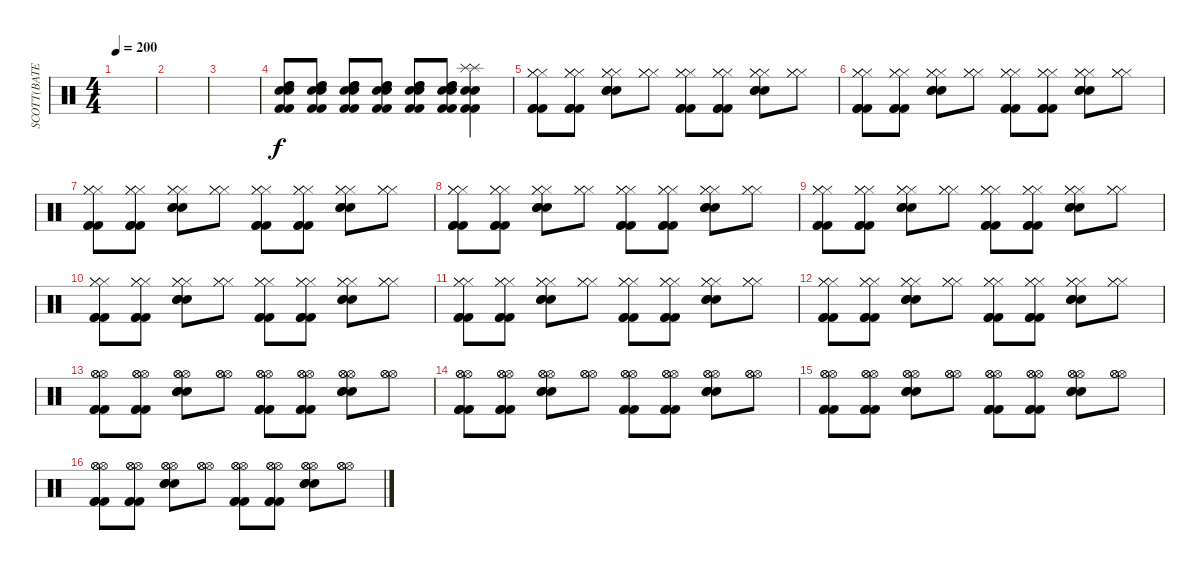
\track ("SCOTT(BATERIA)" "SCOTT(BATE") {instrument percussion}
\staff {score}
\articulation defaults
\ts (4 4)
\tempo 200
\clef neutral
\ks c
|
|
|
("Snare (hit) 2" "Snare (hit) 2" "High Tom (hit)" "High Tom (hit)" "Kick (hit) 2" "Kick (hit) 2").8 ("Snare (hit) 2" "Snare (hit) 2" "High Tom (hit)" "High Tom (hit)" "Kick (hit) 2" "Kick (hit) 2").8 ("Snare (hit) 2" "Snare (hit) 2" "High Tom (hit)" "High Tom (hit)" "Kick (hit) 2" "Kick (hit) 2").8 ("Snare (hit) 2" "Snare (hit) 2" "High Tom (hit)" "High Tom (hit)" "Kick (hit) 2" "Kick (hit) 2").8 ("Snare (hit) 2" "Snare (hit) 2" "High Tom (hit)" "High Tom (hit)" "Kick (hit) 2" "Kick (hit) 2").8 ("Snare (hit) 2" "Snare (hit) 2" "High Tom (hit)" "High Tom (hit)" "Kick (hit) 2" "Kick (hit) 2").8 ("Snare (hit) 2" "Snare (hit) 2" "Splash (hit)" "Splash (hit)" "Kick (hit) 2" "Kick (hit) 2").4 |
("Kick (hit) 2" "Kick (hit) 2" "Kick (hit) 2" "Hi-Hat (closed)" "Hi-Hat (closed)" "Hi-Hat (closed)").8 ("Kick (hit) 2" "Kick (hit) 2" "Kick (hit) 2" "Hi-Hat (closed)" "Hi-Hat (closed)" "Hi-Hat (closed)").8 ("Snare (hit) 2" "Snare (hit) 2" "Snare (hit) 2" "Hi-Hat (closed)" "Hi-Hat (closed)" "Hi-Hat (closed)").8 ("Hi-Hat (closed)" "Hi-Hat (closed)" "Hi-Hat (closed)").8 ("Kick (hit) 2" "Kick (hit) 2" "Kick (hit) 2" "Hi-Hat (closed)" "Hi-Hat (closed)" "Hi-Hat (closed)").8 ("Kick (hit) 2" "Kick (hit) 2" "Kick (hit) 2" "Hi-Hat (closed)" "Hi-Hat (closed)" "Hi-Hat (closed)").8 ("Snare (hit) 2" "Snare (hit) 2" "Snare (hit) 2" "Hi-Hat (closed)" "Hi-Hat (closed)" "Hi-Hat (closed)").8 ("Hi-Hat (closed)" "Hi-Hat (closed)" "Hi-Hat (closed)").8 |
("Kick (hit) 2" "Kick (hit) 2" "Kick (hit) 2" "Hi-Hat (closed)" "Hi-Hat (closed)" "Hi-Hat (closed)").8 ("Kick (hit) 2" "Kick (hit) 2" "Kick (hit) 2" "Hi-Hat (closed)" "Hi-Hat (closed)" "Hi-Hat (closed)").8 ("Snare (hit) 2" "Snare (hit) 2" "Snare (hit) 2" "Hi-Hat (closed)" "Hi-Hat (closed)" "Hi-Hat (closed)").8 ("Hi-Hat (closed)" "Hi-Hat (closed)" "Hi-Hat (closed)").8 ("Kick (hit) 2" "Kick (hit) 2" "Kick (hit) 2" "Hi-Hat (closed)" "Hi-Hat (closed)" "Hi-Hat (closed)").8 ("Kick (hit) 2" "Kick (hit) 2" "Kick (hit) 2" "Hi-Hat (closed)" "Hi-Hat (closed)" "Hi-Hat (closed)").8 ("Snare (hit) 2" "Snare (hit) 2" "Snare (hit) 2" "Hi-Hat (closed)" "Hi-Hat (closed)" "Hi-Hat (closed)").8 ("Hi-Hat (closed)" "Hi-Hat (closed)" "Hi-Hat (closed)").8 |
("Kick (hit) 2" "Kick (hit) 2" "Kick (hit) 2" "Hi-Hat (closed)" "Hi-Hat (closed)" "Hi-Hat (closed)").8 ("Kick (hit) 2" "Kick (hit) 2" "Kick (hit) 2" "Hi-Hat (closed)" "Hi-Hat (closed)" "Hi-Hat (closed)").8 ("Snare (hit) 2" "Snare (hit) 2" "Snare (hit) 2" "Hi-Hat (closed)" "Hi-Hat (closed)" "Hi-Hat (closed)").8 ("Hi-Hat (closed)" "Hi-Hat (closed)" "Hi-Hat (closed)").8 ("Kick (hit) 2" "Kick (hit) 2" "Kick (hit) 2" "Hi-Hat (closed)" "Hi-Hat (closed)" "Hi-Hat (closed)").8 ("Kick (hit) 2" "Kick (hit) 2" "Kick (hit) 2" "Hi-Hat (closed)" "Hi-Hat (closed)" "Hi-Hat (closed)").8 ("Snare (hit) 2" "Snare (hit) 2" "Snare (hit) 2" "Hi-Hat (closed)" "Hi-Hat (closed)" "Hi-Hat (closed)").8 ("Hi-Hat (closed)" "Hi-Hat (closed)" "Hi-Hat (closed)").8 |
("Kick (hit) 2" "Kick (hit) 2" "Kick (hit) 2" "Hi-Hat (closed)" "Hi-Hat (closed)" "Hi-Hat (closed)").8 ("Kick (hit) 2" "Kick (hit) 2" "Kick (hit) 2" "Hi-Hat (closed)" "Hi-Hat (closed)" "Hi-Hat (closed)").8 ("Snare (hit) 2" "Snare (hit) 2" "Snare (hit) 2" "Hi-Hat (closed)" "Hi-Hat (closed)" "Hi-Hat (closed)").8 ("Hi-Hat (closed)" "Hi-Hat (closed)" "Hi-Hat (closed)").8 ("Kick (hit) 2" "Kick (hit) 2" "Kick (hit) 2" "Hi-Hat (closed)" "Hi-Hat (closed)" "Hi-Hat (closed)").8 ("Kick (hit) 2" "Kick (hit) 2" "Kick (hit) 2" "Hi-Hat (closed)" "Hi-Hat (closed)" "Hi-Hat (closed)").8 ("Snare (hit) 2" "Snare (hit) 2" "Snare (hit) 2" "Hi-Hat (closed)" "Hi-Hat (closed)" "Hi-Hat (closed)").8 ("Hi-Hat (closed)" "Hi-Hat (closed)" "Hi-Hat (closed)").8 |
("Kick (hit) 2" "Kick (hit) 2" "Kick (hit) 2" "Hi-Hat (closed)" "Hi-Hat (closed)" "Hi-Hat (closed)").8 ("Kick (hit) 2" "Kick (hit) 2" "Kick (hit) 2" "Hi-Hat (closed)" "Hi-Hat (closed)" "Hi-Hat (closed)").8 ("Snare (hit) 2" "Snare (hit) 2" "Snare (hit) 2" "Hi-Hat (closed)" "Hi-Hat (closed)" "Hi-Hat (closed)").8 ("Hi-Hat (closed)" "Hi-Hat (closed)" "Hi-Hat (closed)").8 ("Kick (hit) 2" "Kick (hit) 2" "Kick (hit) 2" "Hi-Hat (closed)" "Hi-Hat (closed)" "Hi-Hat (closed)").8 ("Kick (hit) 2" "Kick (hit) 2" "Kick (hit) 2" "Hi-Hat (closed)" "Hi-Hat (closed)" "Hi-Hat (closed)").8 ("Snare (hit) 2" "Snare (hit) 2" "Snare (hit) 2" "Hi-Hat (closed)" "Hi-Hat (closed)" "Hi-Hat (closed)").8 ("Hi-Hat (closed)" "Hi-Hat (closed)" "Hi-Hat (closed)").8 |
("Kick (hit) 2" "Kick (hit) 2" "Kick (hit) 2" "Hi-Hat (closed)" "Hi-Hat (closed)" "Hi-Hat (closed)").8 ("Kick (hit) 2" "Kick (hit) 2" "Kick (hit) 2" "Hi-Hat (closed)" "Hi-Hat (closed)" "Hi-Hat (closed)").8 ("Snare (hit) 2" "Snare (hit) 2" "Snare (hit) 2" "Hi-Hat (closed)" "Hi-Hat (closed)" "Hi-Hat (closed)").8 ("Hi-Hat (closed)" "Hi-Hat (closed)" "Hi-Hat (closed)").8 ("Kick (hit) 2" "Kick (hit) 2" "Kick (hit) 2" "Hi-Hat (closed)" "Hi-Hat (closed)" "Hi-Hat (closed)").8 ("Kick (hit) 2" "Kick (hit) 2" "Kick (hit) 2" "Hi-Hat (closed)" "Hi-Hat (closed)" "Hi-Hat (closed)").8 ("Snare (hit) 2" "Snare (hit) 2" "Snare (hit) 2" "Hi-Hat (closed)" "Hi-Hat (closed)" "Hi-Hat (closed)").8 ("Hi-Hat (closed)" "Hi-Hat (closed)" "Hi-Hat (closed)").8 |
("Kick (hit) 2" "Kick (hit) 2" "Kick (hit) 2" "Hi-Hat (closed)" "Hi-Hat (closed)" "Hi-Hat (closed)").8 ("Kick (hit) 2" "Kick (hit) 2" "Kick (hit) 2" "Hi-Hat (closed)" "Hi-Hat (closed)" "Hi-Hat (closed)").8 ("Snare (hit) 2" "Snare (hit) 2" "Snare (hit) 2" "Hi-Hat (closed)" "Hi-Hat (closed)" "Hi-Hat (closed)").8 ("Hi-Hat (closed)" "Hi-Hat (closed)" "Hi-Hat (closed)").8 ("Kick (hit) 2" "Kick (hit) 2" "Kick (hit) 2" "Hi-Hat (closed)" "Hi-Hat (closed)" "Hi-Hat (closed)").8 ("Kick (hit) 2" "Kick (hit) 2" "Kick (hit) 2" "Hi-Hat (closed)" "Hi-Hat (closed)" "Hi-Hat (closed)").8 ("Snare (hit) 2" "Snare (hit) 2" "Snare (hit) 2" "Hi-Hat (closed)" "Hi-Hat (closed)" "Hi-Hat (closed)").8 ("Hi-Hat (closed)" "Hi-Hat (closed)" "Hi-Hat (closed)").8 |
("Kick (hit) 2" "Kick (hit) 2" "Kick (hit) 2" "Hi-Hat (closed)" "Hi-Hat (closed)" "Hi-Hat (closed)").8 ("Kick (hit) 2" "Kick (hit) 2" "Kick (hit) 2" "Hi-Hat (closed)" "Hi-Hat (closed)" "Hi-Hat (closed)").8 ("Snare (hit) 2" "Snare (hit) 2" "Snare (hit) 2" "Hi-Hat (closed)" "Hi-Hat (closed)" "Hi-Hat (closed)").8 ("Hi-Hat (closed)" "Hi-Hat (closed)" "Hi-Hat (closed)").8 ("Kick (hit) 2" "Kick (hit) 2" "Kick (hit) 2" "Hi-Hat (closed)" "Hi-Hat (closed)" "Hi-Hat (closed)").8 ("Kick (hit) 2" "Kick (hit) 2" "Kick (hit) 2" "Hi-Hat (closed)" "Hi-Hat (closed)" "Hi-Hat (closed)").8 ("Snare (hit) 2" "Snare (hit) 2" "Snare (hit) 2" "Hi-Hat (closed)" "Hi-Hat (closed)" "Hi-Hat (closed)").8 ("Hi-Hat (closed)" "Hi-Hat (closed)" "Hi-Hat (closed)").8 |
("Kick (hit) 2" "Kick (hit) 2" "Kick (hit) 2" "Hi-Hat (open)" "Hi-Hat (open)" "Hi-Hat (open)").8 ("Kick (hit) 2" "Kick (hit) 2" "Kick (hit) 2" "Hi-Hat (open)" "Hi-Hat (open)" "Hi-Hat (open)").8 ("Snare (hit) 2" "Snare (hit) 2" "Snare (hit) 2" "Hi-Hat (open)" "Hi-Hat (open)" "Hi-Hat (open)").8 ("Hi-Hat (open)" "Hi-Hat (open)" "Hi-Hat (open)").8 ("Kick (hit) 2" "Kick (hit) 2" "Kick (hit) 2" "Hi-Hat (open)" "Hi-Hat (open)" "Hi-Hat (open)").8 ("Kick (hit) 2" "Kick (hit) 2" "Kick (hit) 2" "Hi-Hat (open)" "Hi-Hat (open)" "Hi-Hat (open)").8 ("Snare (hit) 2" "Snare (hit) 2" "Snare (hit) 2" "Hi-Hat (open)" "Hi-Hat (open)" "Hi-Hat (open)").8 ("Hi-Hat (open)" "Hi-Hat (open)" "Hi-Hat (open)").8 |
("Kick (hit) 2" "Kick (hit) 2" "Kick (hit) 2" "Hi-Hat (open)" "Hi-Hat (open)" "Hi-Hat (open)").8 ("Kick (hit) 2" "Kick (hit) 2" "Kick (hit) 2" "Hi-Hat (open)" "Hi-Hat (open)" "Hi-Hat (open)").8 ("Snare (hit) 2" "Snare (hit) 2" "Snare (hit) 2" "Hi-Hat (open)" "Hi-Hat (open)" "Hi-Hat (open)").8 ("Hi-Hat (open)" "Hi-Hat (open)" "Hi-Hat (open)").8 ("Kick (hit) 2" "Kick (hit) 2" "Kick (hit) 2" "Hi-Hat (open)" "Hi-Hat (open)" "Hi-Hat (open)").8 ("Kick (hit) 2" "Kick (hit) 2" "Kick (hit) 2" "Hi-Hat (open)" "Hi-Hat (open)" "Hi-Hat (open)").8 ("Snare (hit) 2" "Snare (hit) 2" "Snare (hit) 2" "Hi-Hat (open)" "Hi-Hat (open)" "Hi-Hat (open)").8 ("Hi-Hat (open)" "Hi-Hat (open)" "Hi-Hat (open)").8 |
("Kick (hit) 2" "Kick (hit) 2" "Kick (hit) 2" "Hi-Hat (open)" "Hi-Hat (open)" "Hi-Hat (open)").8 ("Kick (hit) 2" "Kick (hit) 2" "Kick (hit) 2" "Hi-Hat (open)" "Hi-Hat (open)" "Hi-Hat (open)").8 ("Snare (hit) 2" "Snare (hit) 2" "Snare (hit) 2" "Hi-Hat (open)" "Hi-Hat (open)" "Hi-Hat (open)").8 ("Hi-Hat (open)" "Hi-Hat (open)" "Hi-Hat (open)").8 ("Kick (hit) 2" "Kick (hit) 2" "Kick (hit) 2" "Hi-Hat (open)" "Hi-Hat (open)" "Hi-Hat (open)").8 ("Kick (hit) 2" "Kick (hit) 2" "Kick (hit) 2" "Hi-Hat (open)" "Hi-Hat (open)" "Hi-Hat (open)").8 ("Snare (hit) 2" "Snare (hit) 2" "Snare (hit) 2" "Hi-Hat (open)" "Hi-Hat (open)" "Hi-Hat (open)").8 ("Hi-Hat (open)" "Hi-Hat (open)" "Hi-Hat (open)").8 |
("Kick (hit) 2" "Kick (hit) 2" "Kick (hit) 2" "Hi-Hat (open)" "Hi-Hat (open)" "Hi-Hat (open)").8 ("Kick (hit) 2" "Kick (hit) 2" "Kick (hit) 2" "Hi-Hat (open)" "Hi-Hat (open)" "Hi-Hat (open)").8 ("Snare (hit) 2" "Snare (hit) 2" "Snare (hit) 2" "Hi-Hat (open)" "Hi-Hat (open)" "Hi-Hat (open)").8 ("Hi-Hat (open)" "Hi-Hat (open)" "Hi-Hat (open)").8 ("Kick (hit) 2" "Kick (hit) 2" "Kick (hit) 2" "Hi-Hat (open)" "Hi-Hat (open)" "Hi-Hat (open)").8 ("Kick (hit) 2" "Kick (hit) 2" "Kick (hit) 2" "Hi-Hat (open)" "Hi-Hat (open)" "Hi-Hat (open)").8 ("Snare (hit) 2" "Snare (hit) 2" "Snare (hit) 2" "Hi-Hat (open)" "Hi-Hat (open)" "Hi-Hat (open)").8 ("Hi-Hat (open)" "Hi-Hat (open)" "Hi-Hat (open)").8
